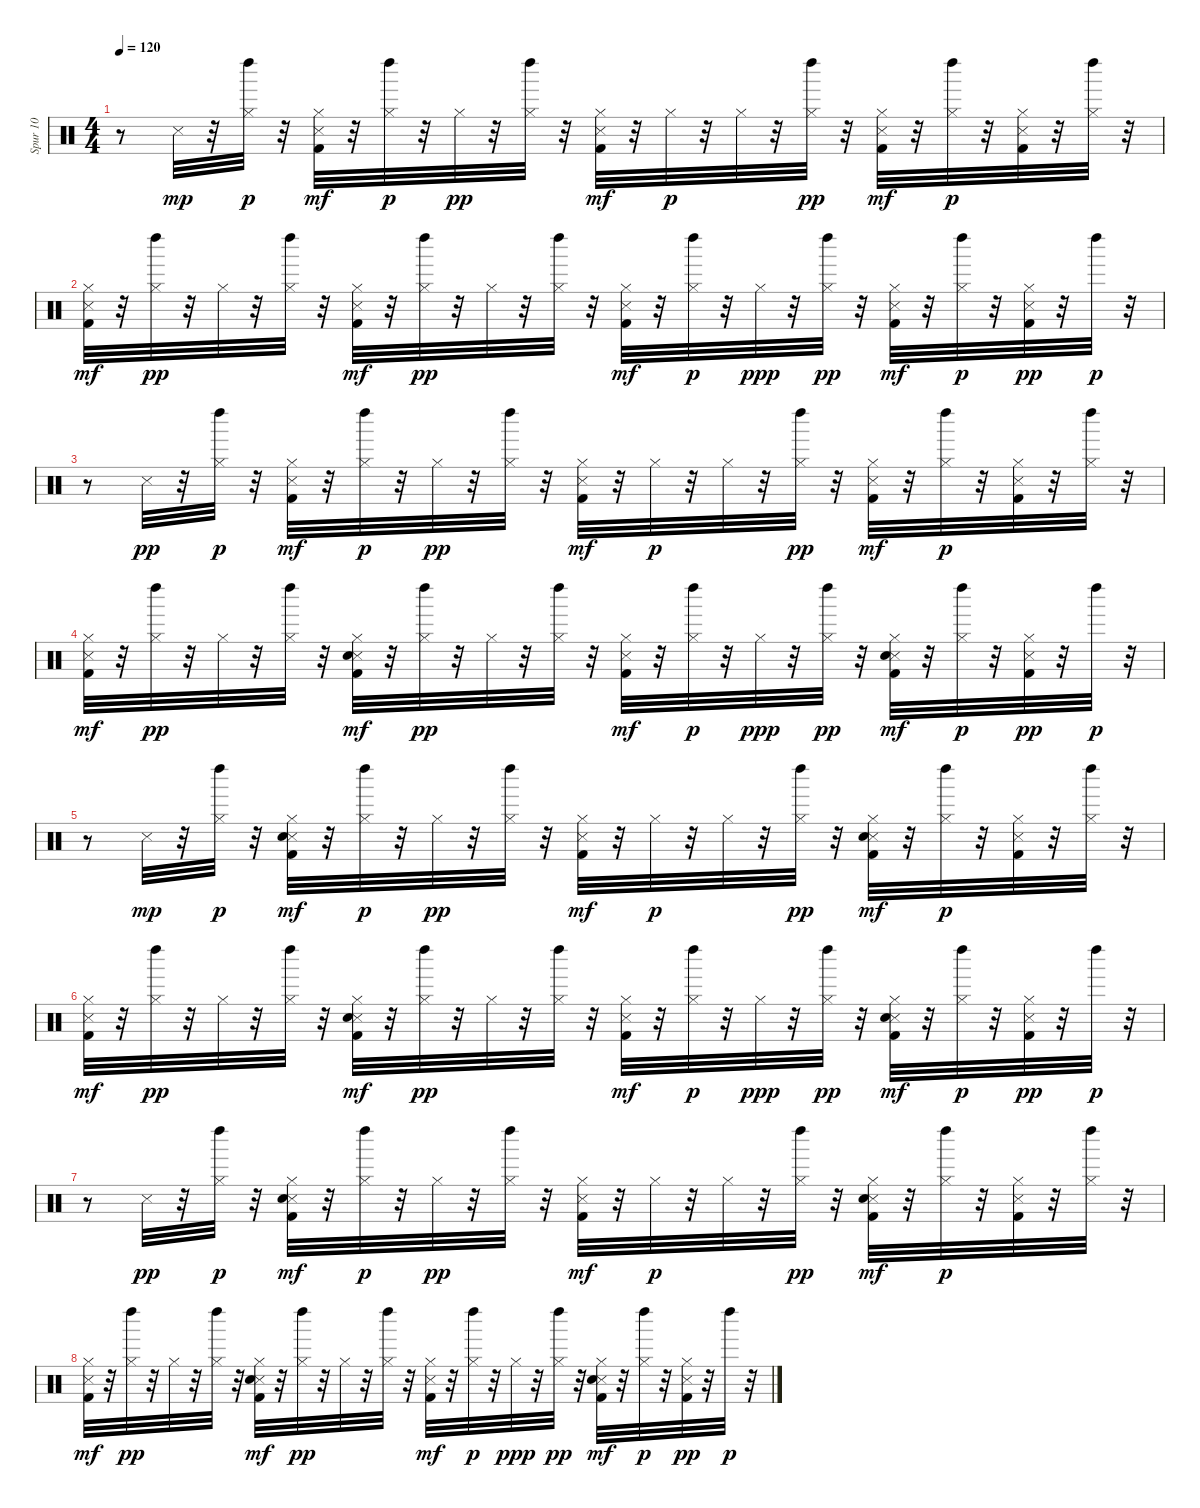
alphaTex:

\track ("Spur 10" "Spur 10") {instrument percussion}
\staff {score}
\articulation defaults
\ts (4 4)
\tempo 120
\clef neutral
\ks c
r.8{dy p} "Snare (side stick) 3".32{dy mp} r.32 ("Hi-Hat (closed)" "Left Maraca (hit)").32{dy p} r.32 ("Kick (hit) 2" "Snare (side stick) 3" "Hi-Hat (closed)").32{dy mf} r.32 ("Hi-Hat (closed)" "Left Maraca (hit)").32{dy p} r.32 "Hi-Hat (closed)".32{dy pp} r.32 ("Hi-Hat (closed)" "Left Maraca (hit)").32 r.32 ("Kick (hit) 2" "Snare (side stick) 3" "Hi-Hat (closed)").32{dy mf} r.32 "Hi-Hat (closed)".32{dy p} r.32 "Hi-Hat (closed)".32 r.32 ("Hi-Hat (closed)" "Left Maraca (hit)").32{dy pp} r.32 ("Kick (hit) 2" "Snare (side stick) 3" "Hi-Hat (closed)").32{dy mf} r.32 ("Hi-Hat (closed)" "Left Maraca (hit)").32{dy p} r.32 ("Kick (hit) 2" "Snare (side stick) 3" "Hi-Hat (closed)").32 r.32 ("Hi-Hat (closed)" "Left Maraca (hit)").32 r.32 |
("Kick (hit) 2" "Snare (side stick) 3" "Hi-Hat (closed)").32{dy mf} r.32 ("Hi-Hat (closed)" "Left Maraca (hit)").32{dy pp} r.32 "Hi-Hat (closed)".32 r.32 ("Hi-Hat (closed)" "Left Maraca (hit)").32 r.32 ("Kick (hit) 2" "Snare (side stick) 3" "Hi-Hat (closed)").32{dy mf} r.32 ("Hi-Hat (closed)" "Left Maraca (hit)").32{dy pp} r.32 "Hi-Hat (closed)".32 r.32 ("Hi-Hat (closed)" "Left Maraca (hit)").32 r.32 ("Kick (hit) 2" "Snare (side stick) 3" "Hi-Hat (closed)").32{dy mf} r.32 ("Hi-Hat (closed)" "Left Maraca (hit)").32{dy p} r.32 "Hi-Hat (closed)".32{dy ppp} r.32 ("Hi-Hat (closed)" "Left Maraca (hit)").32{dy pp} r.32 ("Kick (hit) 2" "Snare (side stick) 3" "Hi-Hat (closed)").32{dy mf} r.32 ("Hi-Hat (closed)" "Left Maraca (hit)").32{dy p} r.32 ("Kick (hit) 2" "Snare (side stick) 3" "Hi-Hat (closed)").32{dy pp} r.32 "Left Maraca (hit)".32{dy p} r.32 |
r.8 "Snare (side stick) 3".32{dy pp} r.32 ("Hi-Hat (closed)" "Left Maraca (hit)").32{dy p} r.32 ("Kick (hit) 2" "Snare (side stick) 3" "Hi-Hat (closed)").32{dy mf} r.32 ("Hi-Hat (closed)" "Left Maraca (hit)").32{dy p} r.32 "Hi-Hat (closed)".32{dy pp} r.32 ("Hi-Hat (closed)" "Left Maraca (hit)").32 r.32 ("Kick (hit) 2" "Snare (side stick) 3" "Hi-Hat (closed)").32{dy mf} r.32 "Hi-Hat (closed)".32{dy p} r.32 "Hi-Hat (closed)".32 r.32 ("Hi-Hat (closed)" "Left Maraca (hit)").32{dy pp} r.32 ("Kick (hit) 2" "Snare (side stick) 3" "Hi-Hat (closed)").32{dy mf} r.32 ("Hi-Hat (closed)" "Left Maraca (hit)").32{dy p} r.32 ("Kick (hit) 2" "Snare (side stick) 3" "Hi-Hat (closed)").32 r.32 ("Hi-Hat (closed)" "Left Maraca (hit)").32 r.32 |
("Kick (hit) 2" "Snare (side stick) 3" "Hi-Hat (closed)").32{dy mf} r.32 ("Hi-Hat (closed)" "Left Maraca (hit)").32{dy pp} r.32 "Hi-Hat (closed)".32 r.32 ("Hi-Hat (closed)" "Left Maraca (hit)").32 r.32 ("Kick (hit) 2" "Snare (side stick) 3" "Hand Clap (hit)" "Hi-Hat (closed)").32{dy mf} r.32 ("Hi-Hat (closed)" "Left Maraca (hit)").32{dy pp} r.32 "Hi-Hat (closed)".32 r.32 ("Hi-Hat (closed)" "Left Maraca (hit)").32 r.32 ("Kick (hit) 2" "Snare (side stick) 3" "Hi-Hat (closed)").32{dy mf} r.32 ("Hi-Hat (closed)" "Left Maraca (hit)").32{dy p} r.32 "Hi-Hat (closed)".32{dy ppp} r.32 ("Hi-Hat (closed)" "Left Maraca (hit)").32{dy pp} r.32 ("Kick (hit) 2" "Snare (side stick) 3" "Hand Clap (hit)" "Hi-Hat (closed)").32{dy mf} r.32 ("Hi-Hat (closed)" "Left Maraca (hit)").32{dy p} r.32 ("Kick (hit) 2" "Snare (side stick) 3" "Hi-Hat (closed)").32{dy pp} r.32 "Left Maraca (hit)".32{dy p} r.32 |
r.8 "Snare (side stick) 3".32{dy mp} r.32 ("Hi-Hat (closed)" "Left Maraca (hit)").32{dy p} r.32 ("Kick (hit) 2" "Snare (side stick) 3" "Hand Clap (hit)" "Hi-Hat (closed)").32{dy mf} r.32 ("Hi-Hat (closed)" "Left Maraca (hit)").32{dy p} r.32 "Hi-Hat (closed)".32{dy pp} r.32 ("Hi-Hat (closed)" "Left Maraca (hit)").32 r.32 ("Kick (hit) 2" "Snare (side stick) 3" "Hi-Hat (closed)").32{dy mf} r.32 "Hi-Hat (closed)".32{dy p} r.32 "Hi-Hat (closed)".32 r.32 ("Hi-Hat (closed)" "Left Maraca (hit)").32{dy pp} r.32 ("Kick (hit) 2" "Snare (side stick) 3" "Hand Clap (hit)" "Hi-Hat (closed)").32{dy mf} r.32 ("Hi-Hat (closed)" "Left Maraca (hit)").32{dy p} r.32 ("Kick (hit) 2" "Snare (side stick) 3" "Hi-Hat (closed)").32 r.32 ("Hi-Hat (closed)" "Left Maraca (hit)").32 r.32 |
("Kick (hit) 2" "Snare (side stick) 3" "Hi-Hat (closed)").32{dy mf} r.32 ("Hi-Hat (closed)" "Left Maraca (hit)").32{dy pp} r.32 "Hi-Hat (closed)".32 r.32 ("Hi-Hat (closed)" "Left Maraca (hit)").32 r.32 ("Kick (hit) 2" "Snare (side stick) 3" "Hand Clap (hit)" "Hi-Hat (closed)").32{dy mf} r.32 ("Hi-Hat (closed)" "Left Maraca (hit)").32{dy pp} r.32 "Hi-Hat (closed)".32 r.32 ("Hi-Hat (closed)" "Left Maraca (hit)").32 r.32 ("Kick (hit) 2" "Snare (side stick) 3" "Hi-Hat (closed)").32{dy mf} r.32 ("Hi-Hat (closed)" "Left Maraca (hit)").32{dy p} r.32 "Hi-Hat (closed)".32{dy ppp} r.32 ("Hi-Hat (closed)" "Left Maraca (hit)").32{dy pp} r.32 ("Kick (hit) 2" "Snare (side stick) 3" "Hand Clap (hit)" "Hi-Hat (closed)").32{dy mf} r.32 ("Hi-Hat (closed)" "Left Maraca (hit)").32{dy p} r.32 ("Kick (hit) 2" "Snare (side stick) 3" "Hi-Hat (closed)").32{dy pp} r.32 "Left Maraca (hit)".32{dy p} r.32 |
r.8 "Snare (side stick) 3".32{dy pp} r.32 ("Hi-Hat (closed)" "Left Maraca (hit)").32{dy p} r.32 ("Kick (hit) 2" "Snare (side stick) 3" "Hand Clap (hit)" "Hi-Hat (closed)").32{dy mf} r.32 ("Hi-Hat (closed)" "Left Maraca (hit)").32{dy p} r.32 "Hi-Hat (closed)".32{dy pp} r.32 ("Hi-Hat (closed)" "Left Maraca (hit)").32 r.32 ("Kick (hit) 2" "Snare (side stick) 3" "Hi-Hat (closed)").32{dy mf} r.32 "Hi-Hat (closed)".32{dy p} r.32 "Hi-Hat (closed)".32 r.32 ("Hi-Hat (closed)" "Left Maraca (hit)").32{dy pp} r.32 ("Kick (hit) 2" "Snare (side stick) 3" "Hand Clap (hit)" "Hi-Hat (closed)").32{dy mf} r.32 ("Hi-Hat (closed)" "Left Maraca (hit)").32{dy p} r.32 ("Kick (hit) 2" "Snare (side stick) 3" "Hi-Hat (closed)").32 r.32 ("Hi-Hat (closed)" "Left Maraca (hit)").32 r.32 |
("Kick (hit) 2" "Snare (side stick) 3" "Hi-Hat (closed)").32{dy mf} r.32 ("Hi-Hat (closed)" "Left Maraca (hit)").32{dy pp} r.32 "Hi-Hat (closed)".32 r.32 ("Hi-Hat (closed)" "Left Maraca (hit)").32 r.32 ("Kick (hit) 2" "Snare (side stick) 3" "Hand Clap (hit)" "Hi-Hat (closed)").32{dy mf} r.32 ("Hi-Hat (closed)" "Left Maraca (hit)").32{dy pp} r.32 "Hi-Hat (closed)".32 r.32 ("Hi-Hat (closed)" "Left Maraca (hit)").32 r.32 ("Kick (hit) 2" "Snare (side stick) 3" "Hi-Hat (closed)").32{dy mf} r.32 ("Hi-Hat (closed)" "Left Maraca (hit)").32{dy p} r.32 "Hi-Hat (closed)".32{dy ppp} r.32 ("Hi-Hat (closed)" "Left Maraca (hit)").32{dy pp} r.32 ("Kick (hit) 2" "Snare (side stick) 3" "Hand Clap (hit)" "Hi-Hat (closed)").32{dy mf} r.32 ("Hi-Hat (closed)" "Left Maraca (hit)").32{dy p} r.32 ("Kick (hit) 2" "Snare (side stick) 3" "Hi-Hat (closed)").32{dy pp} r.32 "Left Maraca (hit)".32{dy p} r.32
